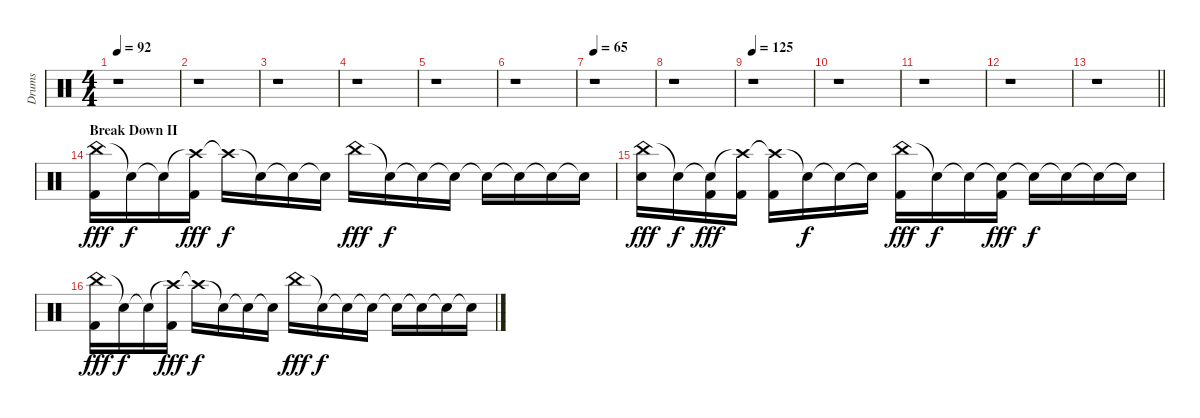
\track ("Drums" "Drums") {instrument percussion}
\staff {score}
\articulation defaults
\ts (4 4)
\tempo 92
\clef neutral
\ks c
r.1{dy fff} |
r.1 |
r.1 |
r.1 |
r.1 |
r.1 |
\tempo 65
r.1 |
r.1 |
\tempo 125
r.1 |
r.1 |
r.1 |
r.1 |
\barLineRight lightlight
r.1 |
\section ("" "Break Down II")
("China (hit)" "Kick (hit) 2").16 "Snare (hit)"{t}.16{dy f} "Snare (hit)"{t}.16 ("Crash high (hit)"{t} "Kick (hit) 2").16{dy fff} "Crash high (hit)"{t}.16{dy f} "Snare (hit)"{t}.16 "Snare (hit)"{t}.16 "Snare (hit)"{t}.16 "China (hit)".16{dy fff} "Snare (hit)"{t}.16{dy f} "Snare (hit)"{t}.16 "Snare (hit)"{t}.16 "Snare (hit)"{t}.16 "Snare (hit)"{t}.16 "Snare (hit)"{t}.16 "Snare (hit)"{t}.16 |
("China (hit)" "Electric Snare (hit)").16{dy fff} "Snare (hit)"{t}.16{dy f} ("Snare (hit)"{t} "Kick (hit) 2").16{dy fff} ("Crash high (hit)"{t} "Kick (hit) 2").16 ("Crash high (hit)"{t} "Kick (hit) 2").16 "Snare (hit)"{t}.16{dy f} "Snare (hit)"{t}.16 "Snare (hit)"{t}.16 ("China (hit)" "Kick (hit) 2").16{dy fff} "Snare (hit)"{t}.16{dy f} "Snare (hit)"{t}.16 ("Snare (hit)"{t} "Kick (hit) 2").16{dy fff} "Snare (hit)"{t}.16{dy f} "Snare (hit)"{t}.16 "Snare (hit)"{t}.16 "Snare (hit)"{t}.16 |
("China (hit)" "Kick (hit) 2").16{dy fff} "Snare (hit)"{t}.16{dy f} "Snare (hit)"{t}.16 ("Crash high (hit)"{t} "Kick (hit) 2").16{dy fff} "Crash high (hit)"{t}.16{dy f} "Snare (hit)"{t}.16 "Snare (hit)"{t}.16 "Snare (hit)"{t}.16 "China (hit)".16{dy fff} "Snare (hit)"{t}.16{dy f} "Snare (hit)"{t}.16 "Snare (hit)"{t}.16 "Snare (hit)"{t}.16 "Snare (hit)"{t}.16 "Snare (hit)"{t}.16 "Snare (hit)"{t}.16
